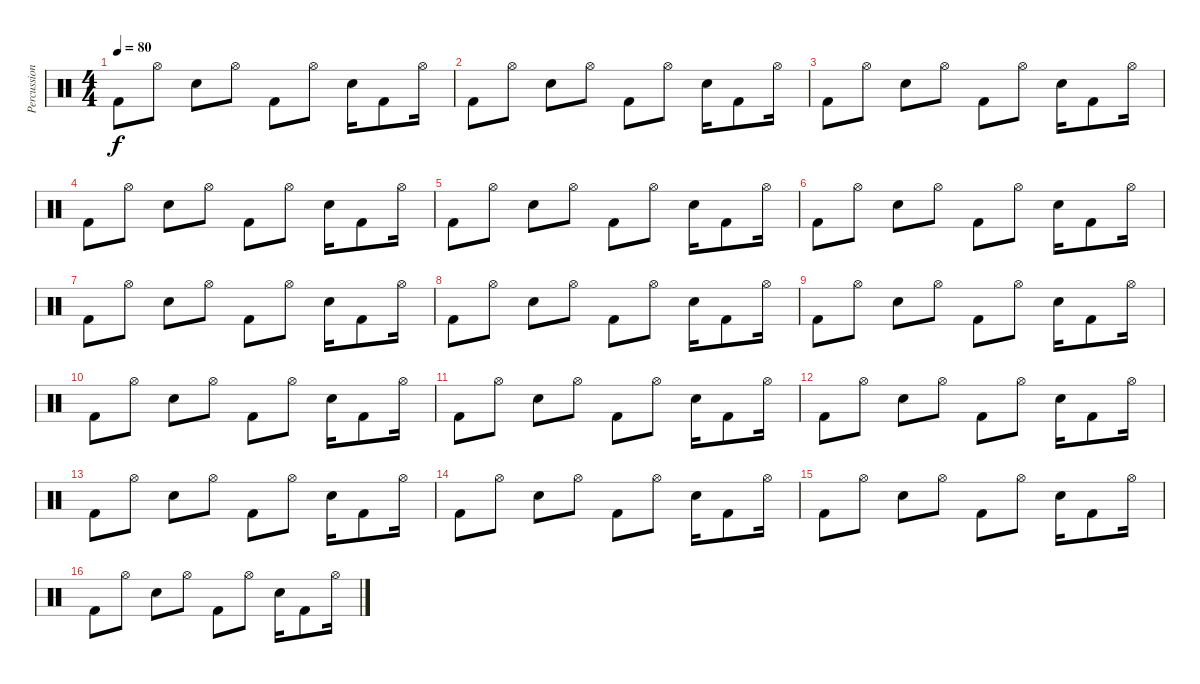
\track ("Percussion" "Percussion") {instrument percussion}
\staff {score}
\articulation defaults
\ts (4 4)
\tempo 80
\clef neutral
\ks c "Kick (hit) 2".8{dy f} "Hi-Hat (open)".8 "Electric Snare (hit)".8 "Hi-Hat (open)".8 "Kick (hit) 2".8 "Hi-Hat (open)".8 "Electric Snare (hit)".16 "Kick (hit) 2".8 "Hi-Hat (open)".16
|
"Kick (hit) 2".8 "Hi-Hat (open)".8 "Electric Snare (hit)".8 "Hi-Hat (open)".8 "Kick (hit) 2".8 "Hi-Hat (open)".8 "Electric Snare (hit)".16 "Kick (hit) 2".8 "Hi-Hat (open)".16 |
"Kick (hit) 2".8 "Hi-Hat (open)".8 "Electric Snare (hit)".8 "Hi-Hat (open)".8 "Kick (hit) 2".8 "Hi-Hat (open)".8 "Electric Snare (hit)".16 "Kick (hit) 2".8 "Hi-Hat (open)".16 |
"Kick (hit) 2".8 "Hi-Hat (open)".8 "Electric Snare (hit)".8 "Hi-Hat (open)".8 "Kick (hit) 2".8 "Hi-Hat (open)".8 "Electric Snare (hit)".16 "Kick (hit) 2".8 "Hi-Hat (open)".16 |
"Kick (hit) 2".8 "Hi-Hat (open)".8 "Electric Snare (hit)".8 "Hi-Hat (open)".8 "Kick (hit) 2".8 "Hi-Hat (open)".8 "Electric Snare (hit)".16 "Kick (hit) 2".8 "Hi-Hat (open)".16 |
"Kick (hit) 2".8 "Hi-Hat (open)".8 "Electric Snare (hit)".8 "Hi-Hat (open)".8 "Kick (hit) 2".8 "Hi-Hat (open)".8 "Electric Snare (hit)".16 "Kick (hit) 2".8 "Hi-Hat (open)".16 |
"Kick (hit) 2".8 "Hi-Hat (open)".8 "Electric Snare (hit)".8 "Hi-Hat (open)".8 "Kick (hit) 2".8 "Hi-Hat (open)".8 "Electric Snare (hit)".16 "Kick (hit) 2".8 "Hi-Hat (open)".16 |
"Kick (hit) 2".8 "Hi-Hat (open)".8 "Electric Snare (hit)".8 "Hi-Hat (open)".8 "Kick (hit) 2".8 "Hi-Hat (open)".8 "Electric Snare (hit)".16 "Kick (hit) 2".8 "Hi-Hat (open)".16 |
"Kick (hit) 2".8 "Hi-Hat (open)".8 "Electric Snare (hit)".8 "Hi-Hat (open)".8 "Kick (hit) 2".8 "Hi-Hat (open)".8 "Electric Snare (hit)".16 "Kick (hit) 2".8 "Hi-Hat (open)".16 |
"Kick (hit) 2".8 "Hi-Hat (open)".8 "Electric Snare (hit)".8 "Hi-Hat (open)".8 "Kick (hit) 2".8 "Hi-Hat (open)".8 "Electric Snare (hit)".16 "Kick (hit) 2".8 "Hi-Hat (open)".16 |
"Kick (hit) 2".8 "Hi-Hat (open)".8 "Electric Snare (hit)".8 "Hi-Hat (open)".8 "Kick (hit) 2".8 "Hi-Hat (open)".8 "Electric Snare (hit)".16 "Kick (hit) 2".8 "Hi-Hat (open)".16 |
"Kick (hit) 2".8 "Hi-Hat (open)".8 "Electric Snare (hit)".8 "Hi-Hat (open)".8 "Kick (hit) 2".8 "Hi-Hat (open)".8 "Electric Snare (hit)".16 "Kick (hit) 2".8 "Hi-Hat (open)".16 |
"Kick (hit) 2".8 "Hi-Hat (open)".8 "Electric Snare (hit)".8 "Hi-Hat (open)".8 "Kick (hit) 2".8 "Hi-Hat (open)".8 "Electric Snare (hit)".16 "Kick (hit) 2".8 "Hi-Hat (open)".16 |
"Kick (hit) 2".8 "Hi-Hat (open)".8 "Electric Snare (hit)".8 "Hi-Hat (open)".8 "Kick (hit) 2".8 "Hi-Hat (open)".8 "Electric Snare (hit)".16 "Kick (hit) 2".8 "Hi-Hat (open)".16 |
"Kick (hit) 2".8 "Hi-Hat (open)".8 "Electric Snare (hit)".8 "Hi-Hat (open)".8 "Kick (hit) 2".8 "Hi-Hat (open)".8 "Electric Snare (hit)".16 "Kick (hit) 2".8 "Hi-Hat (open)".16 |
"Kick (hit) 2".8 "Hi-Hat (open)".8 "Electric Snare (hit)".8 "Hi-Hat (open)".8 "Kick (hit) 2".8 "Hi-Hat (open)".8 "Electric Snare (hit)".16 "Kick (hit) 2".8 "Hi-Hat (open)".16
